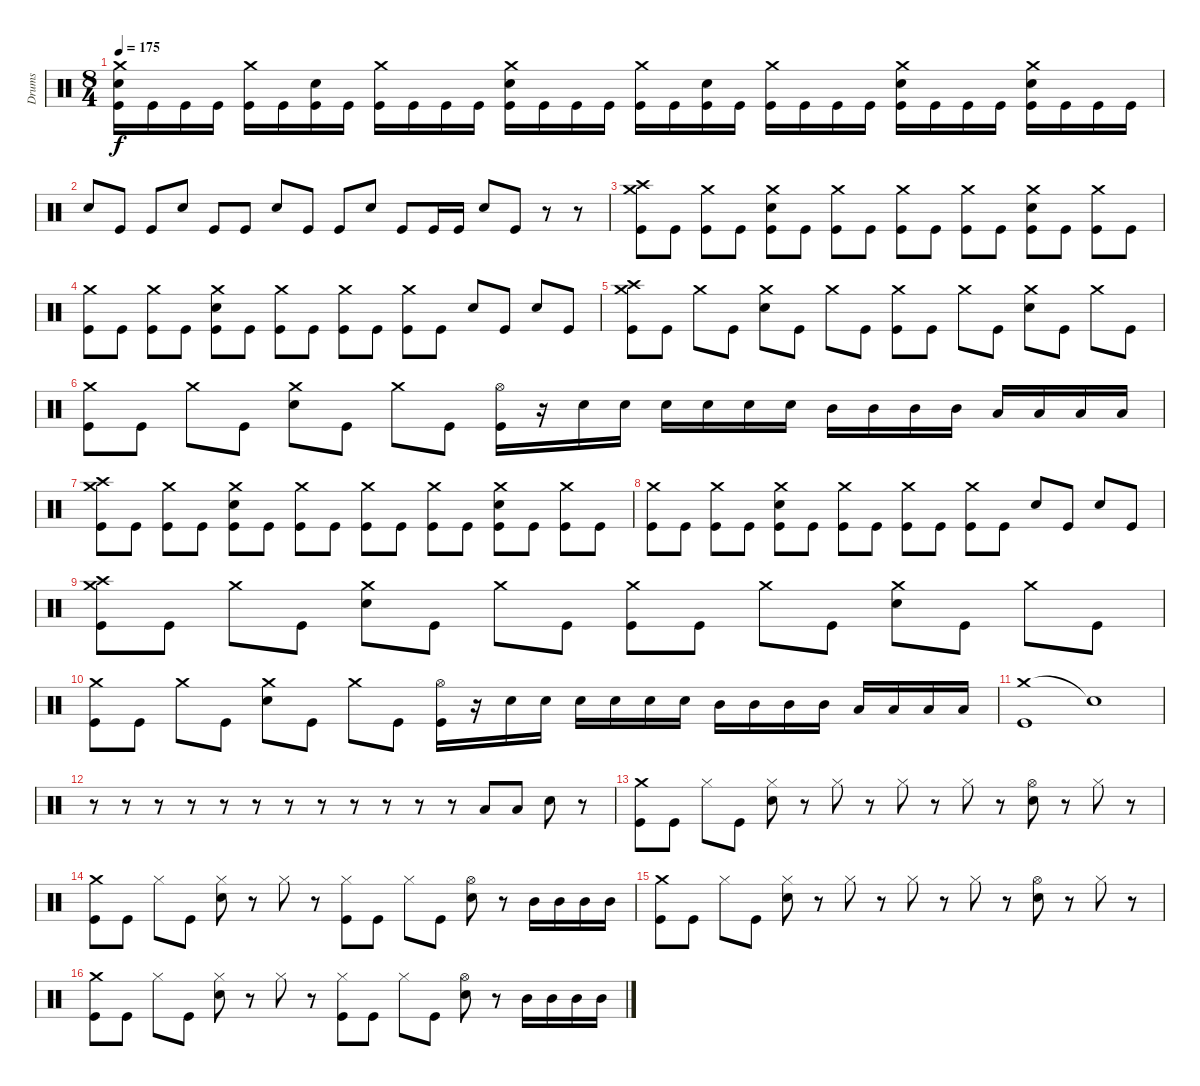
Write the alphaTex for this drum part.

\track ("Drums" "Drums") {instrument percussion}
\staff {score}
\articulation defaults
\ts (8 4)
\tempo 175
\clef neutral
\ks c
("Crash medium (hit)" "Snare (hit) 2" "Kick (hit)").16{dy f} "Kick (hit)".16 "Kick (hit)".16 "Kick (hit)".16 ("Crash medium (hit)" "Kick (hit)").16 "Kick (hit)".16 ("Snare (hit) 2" "Kick (hit)").16 "Kick (hit)".16 ("Crash medium (hit)" "Kick (hit)").16 "Kick (hit)".16 "Kick (hit)".16 "Kick (hit)".16 ("Crash medium (hit)" "Snare (hit) 2" "Kick (hit)").16 "Kick (hit)".16 "Kick (hit)".16 "Kick (hit)".16 ("Crash medium (hit)" "Kick (hit)").16 "Kick (hit)".16 ("Snare (hit) 2" "Kick (hit)").16 "Kick (hit)".16 ("Crash medium (hit)" "Kick (hit)").16 "Kick (hit)".16 "Kick (hit)".16 "Kick (hit)".16 ("Crash medium (hit)" "Snare (hit) 2" "Kick (hit)").16 "Kick (hit)".16 "Kick (hit)".16 "Kick (hit)".16 ("Crash medium (hit)" "Snare (hit) 2" "Kick (hit)").16 "Kick (hit)".16 "Kick (hit)".16 "Kick (hit)".16 |
"Snare (hit) 2".8 "Kick (hit)".8 "Kick (hit)".8 "Snare (hit) 2".8 "Kick (hit)".8 "Kick (hit)".8 "Snare (hit) 2".8 "Kick (hit)".8 "Kick (hit)".8 "Snare (hit) 2".8 "Kick (hit)".8 "Kick (hit)".16 "Kick (hit)".16 "Snare (hit) 2".8 "Kick (hit)".8 r.8 r.8 |
("Crash high (hit)" "Crash medium (hit)" "Kick (hit)").8 "Kick (hit)".8 ("Crash medium (hit)" "Kick (hit)").8 "Kick (hit)".8 ("Crash medium (hit)" "Snare (hit) 2" "Kick (hit)").8 "Kick (hit)".8 ("Crash medium (hit)" "Kick (hit)").8 "Kick (hit)".8 ("Crash medium (hit)" "Kick (hit)").8 "Kick (hit)".8 ("Crash medium (hit)" "Kick (hit)").8 "Kick (hit)".8 ("Crash medium (hit)" "Snare (hit) 2" "Kick (hit)").8 "Kick (hit)".8 ("Crash medium (hit)" "Kick (hit)").8 "Kick (hit)".8 |
("Crash medium (hit)" "Kick (hit)").8 "Kick (hit)".8 ("Crash medium (hit)" "Kick (hit)").8 "Kick (hit)".8 ("Crash medium (hit)" "Snare (hit) 2" "Kick (hit)").8 "Kick (hit)".8 ("Crash medium (hit)" "Kick (hit)").8 "Kick (hit)".8 ("Crash medium (hit)" "Kick (hit)").8 "Kick (hit)".8 ("Crash medium (hit)" "Kick (hit)").8 "Kick (hit)".8 "Snare (hit) 2".8 "Kick (hit)".8 "Snare (hit) 2".8 "Kick (hit)".8 |
("Crash high (hit)" "Crash medium (hit)" "Kick (hit)").8 "Kick (hit)".8 "Crash medium (hit)".8 "Kick (hit)".8 ("Crash medium (hit)" "Snare (hit) 2").8 "Kick (hit)".8 "Crash medium (hit)".8 "Kick (hit)".8 ("Crash medium (hit)" "Kick (hit)").8 "Kick (hit)".8 "Crash medium (hit)".8 "Kick (hit)".8 ("Crash medium (hit)" "Snare (hit) 2").8 "Kick (hit)".8 "Crash medium (hit)".8 "Kick (hit)".8 |
("Crash medium (hit)" "Kick (hit)").8 "Kick (hit)".8 "Crash medium (hit)".8 "Kick (hit)".8 ("Crash medium (hit)" "Snare (hit) 2").8 "Kick (hit)".8 "Crash medium (hit)".8 "Kick (hit)".8 ("Hi-Hat (open)" "Kick (hit)").16 r.16 "Snare (hit) 2".16 "Snare (hit) 2".16 "Snare (hit) 2".16 "Snare (hit) 2".16 "Snare (hit) 2".16 "Snare (hit) 2".16 "Mid Tom (hit)".16 "Mid Tom (hit)".16 "Mid Tom (hit)".16 "Mid Tom (hit)".16 "Low Floor Tom (hit)".16 "Low Floor Tom (hit)".16 "Low Floor Tom (hit)".16 "Low Floor Tom (hit)".16 |
("Crash high (hit)" "Crash medium (hit)" "Kick (hit)").8 "Kick (hit)".8 ("Crash medium (hit)" "Kick (hit)").8 "Kick (hit)".8 ("Crash medium (hit)" "Snare (hit) 2" "Kick (hit)").8 "Kick (hit)".8 ("Crash medium (hit)" "Kick (hit)").8 "Kick (hit)".8 ("Crash medium (hit)" "Kick (hit)").8 "Kick (hit)".8 ("Crash medium (hit)" "Kick (hit)").8 "Kick (hit)".8 ("Crash medium (hit)" "Snare (hit) 2" "Kick (hit)").8 "Kick (hit)".8 ("Crash medium (hit)" "Kick (hit)").8 "Kick (hit)".8 |
("Crash medium (hit)" "Kick (hit)").8 "Kick (hit)".8 ("Crash medium (hit)" "Kick (hit)").8 "Kick (hit)".8 ("Crash medium (hit)" "Snare (hit) 2" "Kick (hit)").8 "Kick (hit)".8 ("Crash medium (hit)" "Kick (hit)").8 "Kick (hit)".8 ("Crash medium (hit)" "Kick (hit)").8 "Kick (hit)".8 ("Crash medium (hit)" "Kick (hit)").8 "Kick (hit)".8 "Snare (hit) 2".8 "Kick (hit)".8 "Snare (hit) 2".8 "Kick (hit)".8 |
("Crash high (hit)" "Crash medium (hit)" "Kick (hit)").8 "Kick (hit)".8 "Crash medium (hit)".8 "Kick (hit)".8 ("Crash medium (hit)" "Snare (hit) 2").8 "Kick (hit)".8 "Crash medium (hit)".8 "Kick (hit)".8 ("Crash medium (hit)" "Kick (hit)").8 "Kick (hit)".8 "Crash medium (hit)".8 "Kick (hit)".8 ("Crash medium (hit)" "Snare (hit) 2").8 "Kick (hit)".8 "Crash medium (hit)".8 "Kick (hit)".8 |
("Crash medium (hit)" "Kick (hit)").8 "Kick (hit)".8 "Crash medium (hit)".8 "Kick (hit)".8 ("Crash medium (hit)" "Snare (hit) 2").8 "Kick (hit)".8 "Crash medium (hit)".8 "Kick (hit)".8 ("Hi-Hat (open)" "Kick (hit)").16 r.16 "Snare (hit) 2".16 "Snare (hit) 2".16 "Snare (hit) 2".16 "Snare (hit) 2".16 "Snare (hit) 2".16 "Snare (hit) 2".16 "Mid Tom (hit)".16 "Mid Tom (hit)".16 "Mid Tom (hit)".16 "Mid Tom (hit)".16 "Low Floor Tom (hit)".16 "Low Floor Tom (hit)".16 "Low Floor Tom (hit)".16 "Low Floor Tom (hit)".16 |
("Crash medium (hit)" "Kick (hit)").1 "Snare (hit)"{t}.1 |
r.8 r.8 r.8 r.8 r.8 r.8 r.8 r.8 r.8 r.8 r.8 r.8 "Low Floor Tom (hit)".8 "Low Floor Tom (hit)".8 "Snare (hit) 2".8 r.8 |
("Crash medium (hit)" "Kick (hit)").8 "Kick (hit)".8 "Hi-Hat (closed)".8 "Kick (hit)".8 ("Hi-Hat (closed)" "Snare (hit) 2").8 r.8 "Hi-Hat (closed)".8 r.8 "Hi-Hat (closed)".8 r.8 "Hi-Hat (closed)".8 r.8 ("Hi-Hat (open)" "Snare (hit) 2").8 r.8 "Hi-Hat (closed)".8 r.8 |
("Crash medium (hit)" "Kick (hit)").8 "Kick (hit)".8 "Hi-Hat (closed)".8 "Kick (hit)".8 ("Hi-Hat (closed)" "Snare (hit) 2").8 r.8 "Hi-Hat (closed)".8 r.8 ("Hi-Hat (closed)" "Kick (hit)").8 "Kick (hit)".8 "Hi-Hat (closed)".8 "Kick (hit)".8 ("Hi-Hat (open)" "Snare (hit) 2").8 r.8 "Mid Tom (hit)".16 "Mid Tom (hit)".16 "Mid Tom (hit)".16 "Mid Tom (hit)".16 |
("Crash medium (hit)" "Kick (hit)").8 "Kick (hit)".8 "Hi-Hat (closed)".8 "Kick (hit)".8 ("Hi-Hat (closed)" "Snare (hit) 2").8 r.8 "Hi-Hat (closed)".8 r.8 "Hi-Hat (closed)".8 r.8 "Hi-Hat (closed)".8 r.8 ("Hi-Hat (open)" "Snare (hit) 2").8 r.8 "Hi-Hat (closed)".8 r.8 |
("Crash medium (hit)" "Kick (hit)").8 "Kick (hit)".8 "Hi-Hat (closed)".8 "Kick (hit)".8 ("Hi-Hat (closed)" "Snare (hit) 2").8 r.8 "Hi-Hat (closed)".8 r.8 ("Hi-Hat (closed)" "Kick (hit)").8 "Kick (hit)".8 "Hi-Hat (closed)".8 "Kick (hit)".8 ("Hi-Hat (open)" "Snare (hit) 2").8 r.8 "Mid Tom (hit)".16 "Mid Tom (hit)".16 "Mid Tom (hit)".16 "Mid Tom (hit)".16
